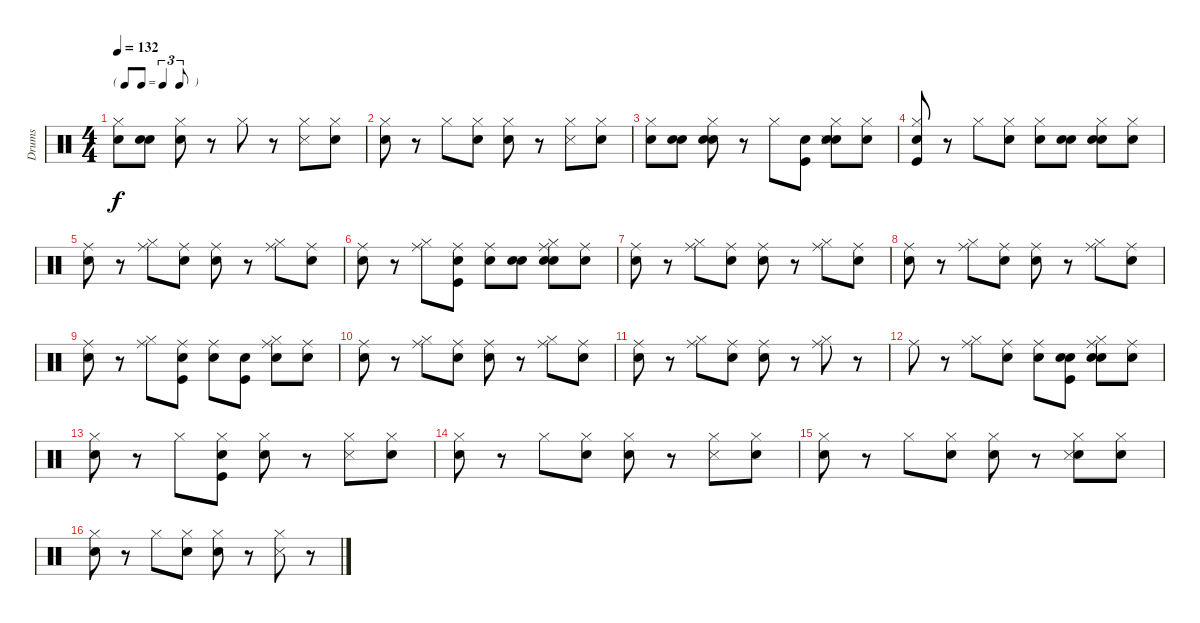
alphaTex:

\track ("Drums" "Drums") {instrument percussion}
\staff {score}
\articulation defaults
\ts (4 4)
\tf triplet8th
\tempo 132
\clef neutral
\ks c
("Snare (hit)" "Hi-Hat (closed)").8{dy f} ("Snare (hit)" "Snare (hit) 2").8 ("Snare (hit)" "Hi-Hat (closed)").8 r.8 "Hi-Hat (closed)".8 r.8 ("Hi-Hat (closed)" "Snare (side stick) 3").8 ("Snare (hit)" "Hi-Hat (closed)").8 |
("Snare (hit)" "Hi-Hat (closed)").8 r.8 "Hi-Hat (closed)".8 ("Snare (hit)" "Hi-Hat (closed)").8 ("Snare (hit)" "Hi-Hat (closed)").8 r.8 ("Hi-Hat (closed)" "Snare (side stick) 3").8 ("Snare (hit)" "Hi-Hat (closed)").8 |
("Snare (hit)" "Hi-Hat (closed)").8 ("Snare (hit)" "Snare (hit) 2").8 ("Snare (hit)" "Snare (hit) 2" "Hi-Hat (closed)").8 r.8 "Hi-Hat (closed)".8 ("Snare (hit)" "Kick (hit)").8 ("Snare (hit)" "Snare (hit) 2" "Hi-Hat (closed)" "Snare (side stick) 3").8 ("Snare (hit)" "Hi-Hat (closed)").8 |
("Snare (hit)" "Kick (hit)" "Hi-Hat (closed)").8 r.8 "Hi-Hat (closed)".8 ("Snare (hit)" "Hi-Hat (closed)").8 ("Snare (hit)" "Hi-Hat (closed)").8 ("Snare (hit)" "Snare (hit) 2").8 ("Snare (hit)" "Snare (hit) 2" "Hi-Hat (closed)").8 ("Snare (hit)" "Hi-Hat (closed)").8 |
("Snare (hit)" "Ride (middle)").8 r.8 ("Hi-Hat (closed)" "Ride (middle)").8 ("Snare (hit)" "Ride (middle)").8 ("Snare (hit)" "Ride (middle)").8 r.8 ("Hi-Hat (closed)" "Ride (middle)").8 ("Snare (hit)" "Ride (middle)").8 |
("Snare (hit)" "Ride (middle)").8 r.8 ("Hi-Hat (closed)" "Ride (middle)").8 ("Snare (hit)" "Kick (hit)" "Ride (middle)").8 ("Snare (hit)" "Ride (middle)").8 ("Snare (hit)" "Snare (hit) 2").8 ("Snare (hit)" "Snare (hit) 2" "Hi-Hat (closed)" "Ride (middle)").8 ("Snare (hit)" "Ride (middle)").8 |
("Snare (hit)" "Ride (middle)").8 r.8 ("Hi-Hat (closed)" "Ride (middle)").8 ("Snare (hit)" "Ride (middle)").8 ("Snare (hit)" "Ride (middle)").8 r.8 ("Hi-Hat (closed)" "Ride (middle)").8 ("Snare (hit)" "Ride (middle)").8 |
("Snare (hit)" "Ride (middle)").8 r.8 ("Hi-Hat (closed)" "Ride (middle)").8 ("Snare (hit)" "Ride (middle)").8 ("Snare (hit)" "Ride (middle)").8 r.8 ("Hi-Hat (closed)" "Ride (middle)").8 ("Snare (hit)" "Ride (middle)").8 |
("Snare (hit)" "Ride (middle)").8 r.8 ("Hi-Hat (closed)" "Ride (middle)").8 ("Snare (hit)" "Kick (hit)" "Ride (middle)").8 ("Snare (hit)" "Ride (middle)").8 ("Snare (hit)" "Kick (hit)").8 ("Snare (hit)" "Hi-Hat (closed)" "Ride (middle)").8 ("Snare (hit)" "Ride (middle)").8 |
("Snare (hit)" "Ride (middle)").8 r.8 ("Hi-Hat (closed)" "Ride (middle)").8 ("Snare (hit)" "Ride (middle)").8 ("Snare (hit)" "Ride (middle)").8 r.8 ("Hi-Hat (closed)" "Ride (middle)").8 ("Snare (hit)" "Ride (middle)").8 |
("Snare (hit)" "Ride (middle)").8 r.8 ("Hi-Hat (closed)" "Ride (middle)").8 ("Snare (hit)" "Ride (middle)").8 ("Snare (hit)" "Ride (middle)").8 r.8 ("Hi-Hat (closed)" "Ride (middle)").8 r.8 |
"Ride (middle)".8 r.8 ("Hi-Hat (closed)" "Ride (middle)").8 ("Snare (hit)" "Ride (middle)").8 ("Snare (hit)" "Ride (middle)").8 ("Snare (hit)" "Kick (hit)" "Snare (hit) 2").8 ("Snare (hit)" "Snare (hit) 2" "Hi-Hat (closed)" "Ride (middle)").8 ("Snare (hit)" "Ride (middle)").8 |
("Snare (hit)" "Hi-Hat (closed)").8 r.8 "Hi-Hat (closed)".8 ("Snare (hit)" "Kick (hit)" "Hi-Hat (closed)").8 ("Snare (hit)" "Hi-Hat (closed)").8 r.8 ("Hi-Hat (closed)" "Snare (side stick) 3").8 ("Snare (hit)" "Hi-Hat (closed)").8 |
("Snare (hit)" "Hi-Hat (closed)").8 r.8 "Hi-Hat (closed)".8 ("Snare (hit)" "Hi-Hat (closed)").8 ("Snare (hit)" "Hi-Hat (closed)").8 r.8 ("Hi-Hat (closed)" "Snare (side stick) 3").8 ("Snare (hit)" "Hi-Hat (closed)").8 |
("Snare (hit)" "Hi-Hat (closed)").8 r.8 "Hi-Hat (closed)".8 ("Snare (hit)" "Hi-Hat (closed)").8 ("Snare (hit)" "Hi-Hat (closed)").8 r.8 ("Snare (hit) 2" "Hi-Hat (closed)" "Snare (side stick) 3").8 ("Snare (hit)" "Hi-Hat (closed)").8 |
("Snare (hit)" "Hi-Hat (closed)").8 r.8 "Hi-Hat (closed)".8 ("Snare (hit)" "Hi-Hat (closed)").8 ("Snare (hit)" "Hi-Hat (closed)").8 r.8 ("Hi-Hat (closed)" "Snare (side stick) 3").8 r.8
